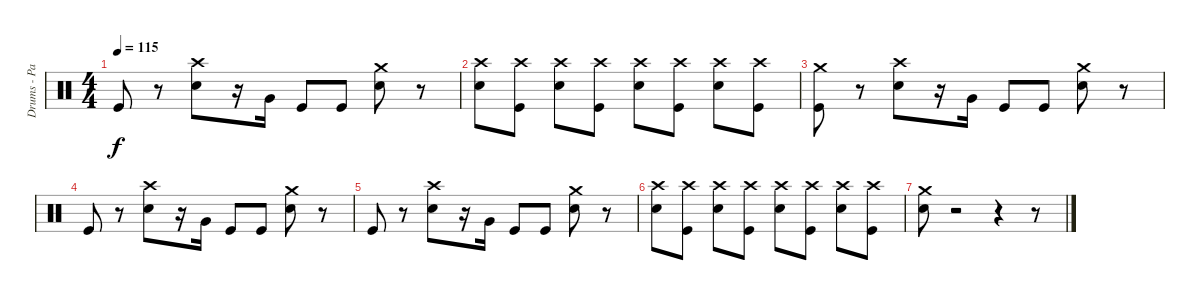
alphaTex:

\track ("Drums - Paul Thomson" "Drums - Pa") {instrument percussion}
\staff {score}
\articulation defaults
\ts (4 4)
\tempo 115
\clef neutral
\ks c "Kick (hit)".8{dy f}
r.8 ("Electric Snare (hit)" "Crash high (hit)").8 r.16 "Very Low Tom (hit)".16 "Kick (hit)".8 "Kick (hit)".8 ("Electric Snare (hit)" "Crash medium (hit)").8 r.8 |
("Electric Snare (hit)" "Crash high (hit)").8 ("Kick (hit)" "Crash high (hit)").8 ("Electric Snare (hit)" "Crash high (hit)").8 ("Kick (hit)" "Crash high (hit)").8 ("Electric Snare (hit)" "Crash high (hit)").8 ("Kick (hit)" "Crash high (hit)").8 ("Electric Snare (hit)" "Crash high (hit)").8 ("Kick (hit)" "Crash high (hit)").8 |
("Kick (hit)" "Crash medium (hit)").8 r.8 ("Electric Snare (hit)" "Crash high (hit)").8 r.16 "Very Low Tom (hit)".16 "Kick (hit)".8 "Kick (hit)".8 ("Electric Snare (hit)" "Crash medium (hit)").8 r.8 |
"Kick (hit)".8 r.8 ("Electric Snare (hit)" "Crash high (hit)").8 r.16 "Very Low Tom (hit)".16 "Kick (hit)".8 "Kick (hit)".8 ("Electric Snare (hit)" "Crash medium (hit)").8 r.8 |
"Kick (hit)".8 r.8 ("Electric Snare (hit)" "Crash high (hit)").8 r.16 "Very Low Tom (hit)".16 "Kick (hit)".8 "Kick (hit)".8 ("Electric Snare (hit)" "Crash medium (hit)").8 r.8 |
("Electric Snare (hit)" "Crash high (hit)").8 ("Kick (hit)" "Crash high (hit)").8 ("Electric Snare (hit)" "Crash high (hit)").8 ("Kick (hit)" "Crash high (hit)").8 ("Electric Snare (hit)" "Crash high (hit)").8 ("Kick (hit)" "Crash high (hit)").8 ("Electric Snare (hit)" "Crash high (hit)").8 ("Kick (hit)" "Crash high (hit)").8 |
("Electric Snare (hit)" "Crash medium (hit)").8 r.2 r.4 r.8
